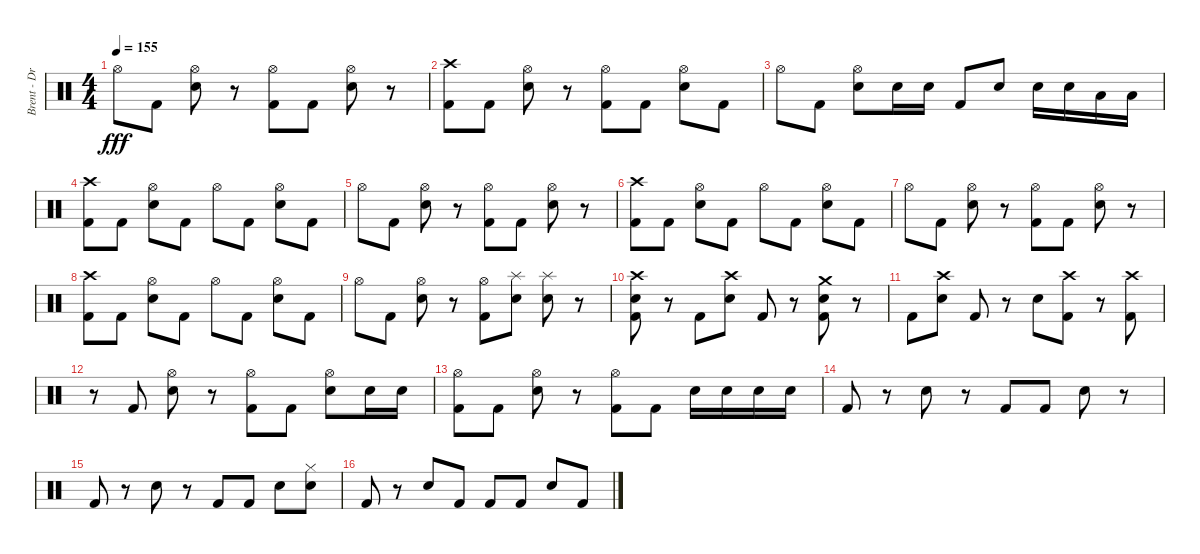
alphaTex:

\track ("Brent - Drums" "Brent - Dr") {instrument percussion}
\staff {score}
\articulation defaults
\ts (4 4)
\tempo 155
\clef neutral
\ks c "Hi-Hat (open)".8{dy fff} "Kick (hit) 2".8
("Hi-Hat (open)" "Snare (hit) 2").8 r.8 ("Hi-Hat (open)" "Kick (hit) 2").8 "Kick (hit) 2".8 ("Hi-Hat (open)" "Snare (hit) 2").8 r.8 |
("Crash high (hit)" "Kick (hit) 2").8 "Kick (hit) 2".8 ("Hi-Hat (open)" "Snare (hit) 2").8 r.8 ("Hi-Hat (open)" "Kick (hit) 2").8 "Kick (hit) 2".8 ("Hi-Hat (open)" "Snare (hit) 2").8 "Kick (hit) 2".8 |
"Hi-Hat (open)".8 "Kick (hit) 2".8 ("Hi-Hat (open)" "Snare (hit) 2").8 "Snare (hit) 2".16 "Snare (hit) 2".16 "Kick (hit) 2".8 "Snare (hit) 2".8 "Snare (hit) 2".16 "Snare (hit) 2".16 "Low Tom (hit)".16 "Low Tom (hit)".16 |
("Crash high (hit)" "Kick (hit) 2").8 "Kick (hit) 2".8 ("Hi-Hat (open)" "Snare (hit) 2").8 "Kick (hit) 2".8 "Hi-Hat (open)".8 "Kick (hit) 2".8 ("Hi-Hat (open)" "Snare (hit) 2").8 "Kick (hit) 2".8 |
"Hi-Hat (open)".8 "Kick (hit) 2".8 ("Hi-Hat (open)" "Snare (hit) 2").8 r.8 ("Hi-Hat (open)" "Kick (hit) 2").8 "Kick (hit) 2".8 ("Hi-Hat (open)" "Snare (hit) 2").8 r.8 |
("Crash high (hit)" "Kick (hit) 2").8 "Kick (hit) 2".8 ("Hi-Hat (open)" "Snare (hit) 2").8 "Kick (hit) 2".8 "Hi-Hat (open)".8 "Kick (hit) 2".8 ("Hi-Hat (open)" "Snare (hit) 2").8 "Kick (hit) 2".8 |
"Hi-Hat (open)".8 "Kick (hit) 2".8 ("Hi-Hat (open)" "Snare (hit) 2").8 r.8 ("Hi-Hat (open)" "Kick (hit) 2").8 "Kick (hit) 2".8 ("Hi-Hat (open)" "Snare (hit) 2").8 r.8 |
("Crash high (hit)" "Kick (hit) 2").8 "Kick (hit) 2".8 ("Hi-Hat (open)" "Snare (hit) 2").8 "Kick (hit) 2".8 "Hi-Hat (open)".8 "Kick (hit) 2".8 ("Hi-Hat (open)" "Snare (hit) 2").8 "Kick (hit) 2".8 |
"Hi-Hat (open)".8 "Kick (hit) 2".8 ("Hi-Hat (open)" "Snare (hit) 2").8 r.8 ("Hi-Hat (open)" "Kick (hit) 2").8 ("Splash (hit)" "Snare (hit) 2").8 ("Splash (hit)" "Snare (hit) 2").8 r.8 |
("Crash high (hit)" "Snare (hit) 2" "Kick (hit) 2").8 r.8 "Kick (hit) 2".8 ("Crash high (hit)" "Snare (hit) 2").8 "Kick (hit) 2".8 r.8 ("Crash medium (hit)" "Snare (hit) 2" "Kick (hit) 2").8 r.8 |
"Kick (hit) 2".8 ("Crash high (hit)" "Snare (hit) 2").8 "Kick (hit) 2".8 r.8 "Snare (hit) 2".8 ("Crash high (hit)" "Kick (hit) 2").8 r.8 ("Crash high (hit)" "Kick (hit) 2").8 |
r.8 "Kick (hit) 2".8 ("Hi-Hat (open)" "Snare (hit) 2").8 r.8 ("Hi-Hat (open)" "Kick (hit) 2").8 "Kick (hit) 2".8 ("Hi-Hat (open)" "Snare (hit) 2").8 "Snare (hit) 2".16 "Snare (hit) 2".16 |
("Hi-Hat (open)" "Kick (hit) 2").8 "Kick (hit) 2".8 ("Hi-Hat (open)" "Snare (hit) 2").8 r.8 ("Hi-Hat (open)" "Kick (hit) 2").8 "Kick (hit) 2".8 "Snare (hit) 2".16 "Snare (hit) 2".16 "Snare (hit) 2".16 "Snare (hit) 2".16 |
"Kick (hit) 2".8 r.8 "Snare (hit) 2".8 r.8 "Kick (hit) 2".8 "Kick (hit) 2".8 "Snare (hit) 2".8 r.8 |
"Kick (hit) 2".8 r.8 "Snare (hit) 2".8 r.8 "Kick (hit) 2".8 "Kick (hit) 2".8 "Snare (hit) 2".8 ("Hi-Hat (closed)" "Snare (hit) 2").8 |
"Kick (hit) 2".8 r.8 "Snare (hit) 2".8 "Kick (hit) 2".8 "Kick (hit) 2".8 "Kick (hit) 2".8 "Snare (hit) 2".8 "Kick (hit) 2".8
